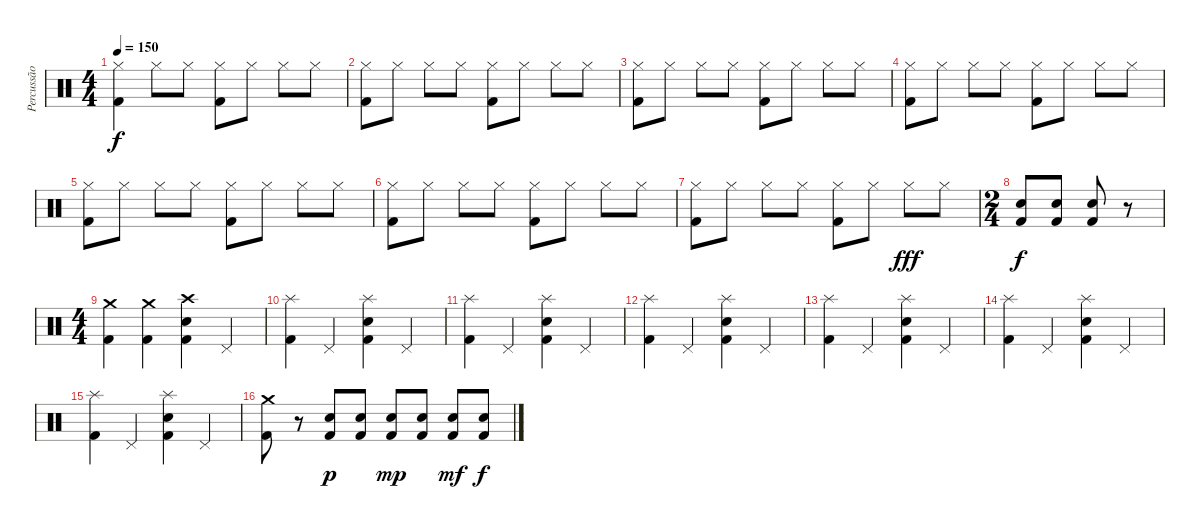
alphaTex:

\track ("Percussão" "Percussão") {instrument percussion}
\staff {score}
\articulation defaults
\ts (4 4)
\tempo 150
\clef neutral
\ks c
("Hi-Hat (closed)" "Kick (hit) 2").4{dy f} "Hi-Hat (closed)".8 "Hi-Hat (closed)".8 ("Hi-Hat (closed)" "Kick (hit) 2").8 "Hi-Hat (closed)".8 "Hi-Hat (closed)".8 "Hi-Hat (closed)".8 |
("Hi-Hat (closed)" "Kick (hit) 2").8 "Hi-Hat (closed)".8 "Hi-Hat (closed)".8 "Hi-Hat (closed)".8 ("Hi-Hat (closed)" "Kick (hit) 2").8 "Hi-Hat (closed)".8 "Hi-Hat (closed)".8 "Hi-Hat (closed)".8 |
("Hi-Hat (closed)" "Kick (hit) 2").8 "Hi-Hat (closed)".8 "Hi-Hat (closed)".8 "Hi-Hat (closed)".8 ("Hi-Hat (closed)" "Kick (hit) 2").8 "Hi-Hat (closed)".8 "Hi-Hat (closed)".8 "Hi-Hat (closed)".8 |
("Hi-Hat (closed)" "Kick (hit) 2").8 "Hi-Hat (closed)".8 "Hi-Hat (closed)".8 "Hi-Hat (closed)".8 ("Hi-Hat (closed)" "Kick (hit) 2").8 "Hi-Hat (closed)".8 "Hi-Hat (closed)".8 "Hi-Hat (closed)".8 |
("Hi-Hat (closed)" "Kick (hit) 2").8 "Hi-Hat (closed)".8 "Hi-Hat (closed)".8 "Hi-Hat (closed)".8 ("Hi-Hat (closed)" "Kick (hit) 2").8 "Hi-Hat (closed)".8 "Hi-Hat (closed)".8 "Hi-Hat (closed)".8 |
("Hi-Hat (closed)" "Kick (hit) 2").8 "Hi-Hat (closed)".8 "Hi-Hat (closed)".8 "Hi-Hat (closed)".8 ("Hi-Hat (closed)" "Kick (hit) 2").8 "Hi-Hat (closed)".8 "Hi-Hat (closed)".8 "Hi-Hat (closed)".8 |
("Hi-Hat (closed)" "Kick (hit) 2").8 "Hi-Hat (closed)".8 "Hi-Hat (closed)".8 "Hi-Hat (closed)".8 ("Hi-Hat (closed)" "Kick (hit) 2").8 "Hi-Hat (closed)".8 "Hi-Hat (closed)".8{dy fff} "Hi-Hat (closed)".8 |
\ts (2 4)
("Snare (hit) 2" "Kick (hit) 2").8{dy f} ("Snare (hit) 2" "Kick (hit) 2").8 ("Snare (hit) 2" "Kick (hit) 2").8 r.8 |
\ts (4 4)
("Crash medium (hit)" "Kick (hit) 2").4 ("Crash medium (hit)" "Kick (hit) 2").4 ("Crash high (hit)" "Snare (hit) 2" "Kick (hit) 2").4 "Pedal Hi-Hat (hit)".4 |
("Splash (hit)" "Kick (hit) 2").4 "Pedal Hi-Hat (hit)".4 ("Splash (hit)" "Snare (hit) 2" "Kick (hit) 2").4 "Pedal Hi-Hat (hit)".4 |
("Splash (hit)" "Kick (hit) 2").4 "Pedal Hi-Hat (hit)".4 ("Splash (hit)" "Snare (hit) 2" "Kick (hit) 2").4 "Pedal Hi-Hat (hit)".4 |
("Splash (hit)" "Kick (hit) 2").4 "Pedal Hi-Hat (hit)".4 ("Splash (hit)" "Snare (hit) 2" "Kick (hit) 2").4 "Pedal Hi-Hat (hit)".4 |
("Splash (hit)" "Kick (hit) 2").4 "Pedal Hi-Hat (hit)".4 ("Splash (hit)" "Snare (hit) 2" "Kick (hit) 2").4 "Pedal Hi-Hat (hit)".4 |
("Splash (hit)" "Kick (hit) 2").4 "Pedal Hi-Hat (hit)".4 ("Splash (hit)" "Snare (hit) 2" "Kick (hit) 2").4 "Pedal Hi-Hat (hit)".4 |
("Splash (hit)" "Kick (hit) 2").4 "Pedal Hi-Hat (hit)".4 ("Splash (hit)" "Snare (hit) 2" "Kick (hit) 2").4 "Pedal Hi-Hat (hit)".4 |
("Crash medium (hit)" "Kick (hit) 2").8 r.8 ("Snare (hit) 2" "Kick (hit) 2").8{dy p} ("Snare (hit) 2" "Kick (hit) 2").8 ("Snare (hit) 2" "Kick (hit) 2").8{dy mp} ("Snare (hit) 2" "Kick (hit) 2").8 ("Snare (hit) 2" "Kick (hit) 2").8{dy mf} ("Snare (hit) 2" "Kick (hit) 2").8{dy f}
